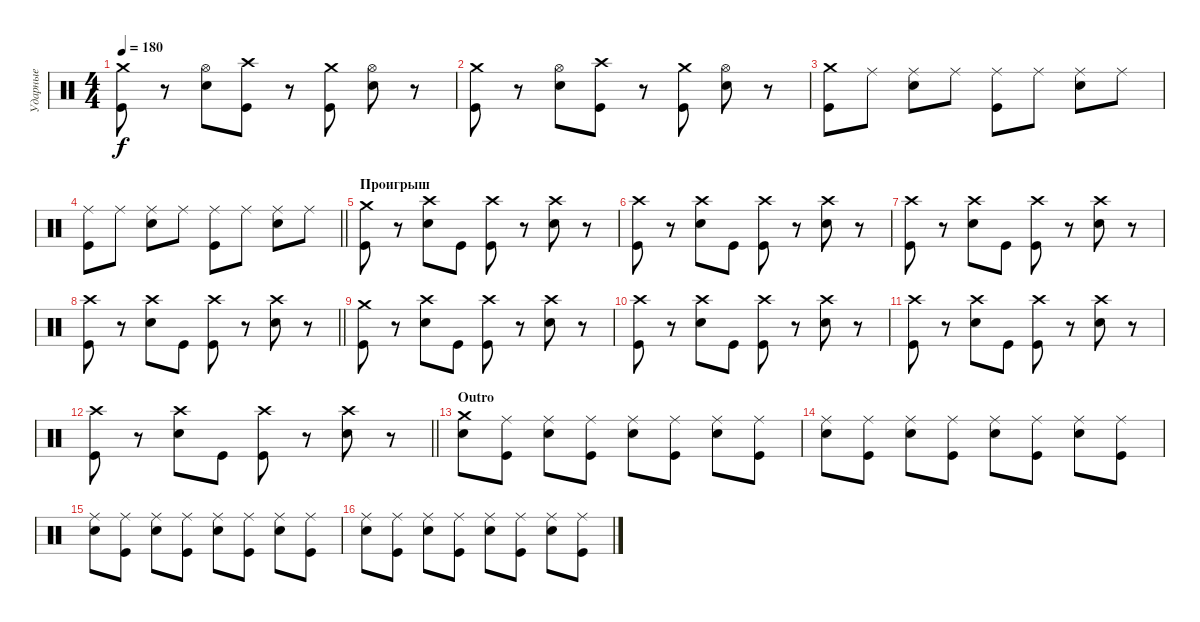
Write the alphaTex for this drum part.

\track ("Ударные" "Ударные") {instrument percussion}
\staff {score}
\articulation defaults
\ts (4 4)
\tempo 180
\clef neutral
\ks c
("Crash medium (hit)" "Kick (hit)").8{dy f} r.8 ("Hi-Hat (open)" "Electric Snare (hit)").8 ("Crash high (hit)" "Kick (hit)").8 r.8 ("Crash medium (hit)" "Kick (hit)").8 ("Hi-Hat (open)" "Electric Snare (hit)").8 r.8 |
("Crash medium (hit)" "Kick (hit)").8 r.8 ("Hi-Hat (open)" "Electric Snare (hit)").8 ("Crash high (hit)" "Kick (hit)").8 r.8 ("Crash medium (hit)" "Kick (hit)").8 ("Hi-Hat (open)" "Electric Snare (hit)").8 r.8 |
("Crash medium (hit)" "Kick (hit)").8 "Ride (middle)".8 ("Ride (middle)" "Electric Snare (hit)").8 "Ride (middle)".8 ("Ride (middle)" "Kick (hit)").8 "Ride (middle)".8 ("Ride (middle)" "Electric Snare (hit)").8 "Ride (middle)".8 |
\barLineRight lightlight
("Ride (middle)" "Kick (hit)").8 "Ride (middle)".8 ("Ride (middle)" "Electric Snare (hit)").8 "Ride (middle)".8 ("Ride (middle)" "Kick (hit)").8 "Ride (middle)".8 ("Ride (middle)" "Electric Snare (hit)").8 "Ride (middle)".8 |
\section ("" "Проигрыш")
("Crash medium (hit)" "Kick (hit)").8 r.8 ("Crash high (hit)" "Electric Snare (hit)").8 "Kick (hit)".8 ("Crash high (hit)" "Kick (hit)").8 r.8 ("Crash high (hit)" "Electric Snare (hit)").8 r.8 |
("Crash high (hit)" "Kick (hit)").8 r.8 ("Crash high (hit)" "Electric Snare (hit)").8 "Kick (hit)".8 ("Crash high (hit)" "Kick (hit)").8 r.8 ("Crash high (hit)" "Electric Snare (hit)").8 r.8 |
("Crash high (hit)" "Kick (hit)").8 r.8 ("Crash high (hit)" "Electric Snare (hit)").8 "Kick (hit)".8 ("Crash high (hit)" "Kick (hit)").8 r.8 ("Crash high (hit)" "Electric Snare (hit)").8 r.8 |
\barLineRight lightlight
("Crash high (hit)" "Kick (hit)").8 r.8 ("Crash high (hit)" "Electric Snare (hit)").8 "Kick (hit)".8 ("Crash high (hit)" "Kick (hit)").8 r.8 ("Crash high (hit)" "Electric Snare (hit)").8 r.8 |
("Crash medium (hit)" "Kick (hit)").8 r.8 ("Crash high (hit)" "Electric Snare (hit)").8 "Kick (hit)".8 ("Crash high (hit)" "Kick (hit)").8 r.8 ("Crash high (hit)" "Electric Snare (hit)").8 r.8 |
("Crash high (hit)" "Kick (hit)").8 r.8 ("Crash high (hit)" "Electric Snare (hit)").8 "Kick (hit)".8 ("Crash high (hit)" "Kick (hit)").8 r.8 ("Crash high (hit)" "Electric Snare (hit)").8 r.8 |
("Crash high (hit)" "Kick (hit)").8 r.8 ("Crash high (hit)" "Electric Snare (hit)").8 "Kick (hit)".8 ("Crash high (hit)" "Kick (hit)").8 r.8 ("Crash high (hit)" "Electric Snare (hit)").8 r.8 |
\barLineRight lightlight
("Crash high (hit)" "Kick (hit)").8 r.8 ("Crash high (hit)" "Electric Snare (hit)").8 "Kick (hit)".8 ("Crash high (hit)" "Kick (hit)").8 r.8 ("Crash high (hit)" "Electric Snare (hit)").8 r.8 |
\section ("" "Outro")
("Crash medium (hit)" "Electric Snare (hit)").8 ("Ride (middle)" "Kick (hit)").8 ("Ride (middle)" "Electric Snare (hit)").8 ("Ride (middle)" "Kick (hit)").8 ("Ride (middle)" "Electric Snare (hit)").8 ("Ride (middle)" "Kick (hit)").8 ("Ride (middle)" "Electric Snare (hit)").8 ("Ride (middle)" "Kick (hit)").8 |
("Ride (middle)" "Electric Snare (hit)").8 ("Ride (middle)" "Kick (hit)").8 ("Ride (middle)" "Electric Snare (hit)").8 ("Ride (middle)" "Kick (hit)").8 ("Ride (middle)" "Electric Snare (hit)").8 ("Ride (middle)" "Kick (hit)").8 ("Ride (middle)" "Electric Snare (hit)").8 ("Ride (middle)" "Kick (hit)").8 |
("Ride (middle)" "Electric Snare (hit)").8 ("Ride (middle)" "Kick (hit)").8 ("Ride (middle)" "Electric Snare (hit)").8 ("Ride (middle)" "Kick (hit)").8 ("Ride (middle)" "Electric Snare (hit)").8 ("Ride (middle)" "Kick (hit)").8 ("Ride (middle)" "Electric Snare (hit)").8 ("Ride (middle)" "Kick (hit)").8 |
("Ride (middle)" "Electric Snare (hit)").8 ("Ride (middle)" "Kick (hit)").8 ("Ride (middle)" "Electric Snare (hit)").8 ("Ride (middle)" "Kick (hit)").8 ("Ride (middle)" "Electric Snare (hit)").8 ("Ride (middle)" "Kick (hit)").8 ("Ride (middle)" "Electric Snare (hit)").8 ("Ride (middle)" "Kick (hit)").8
